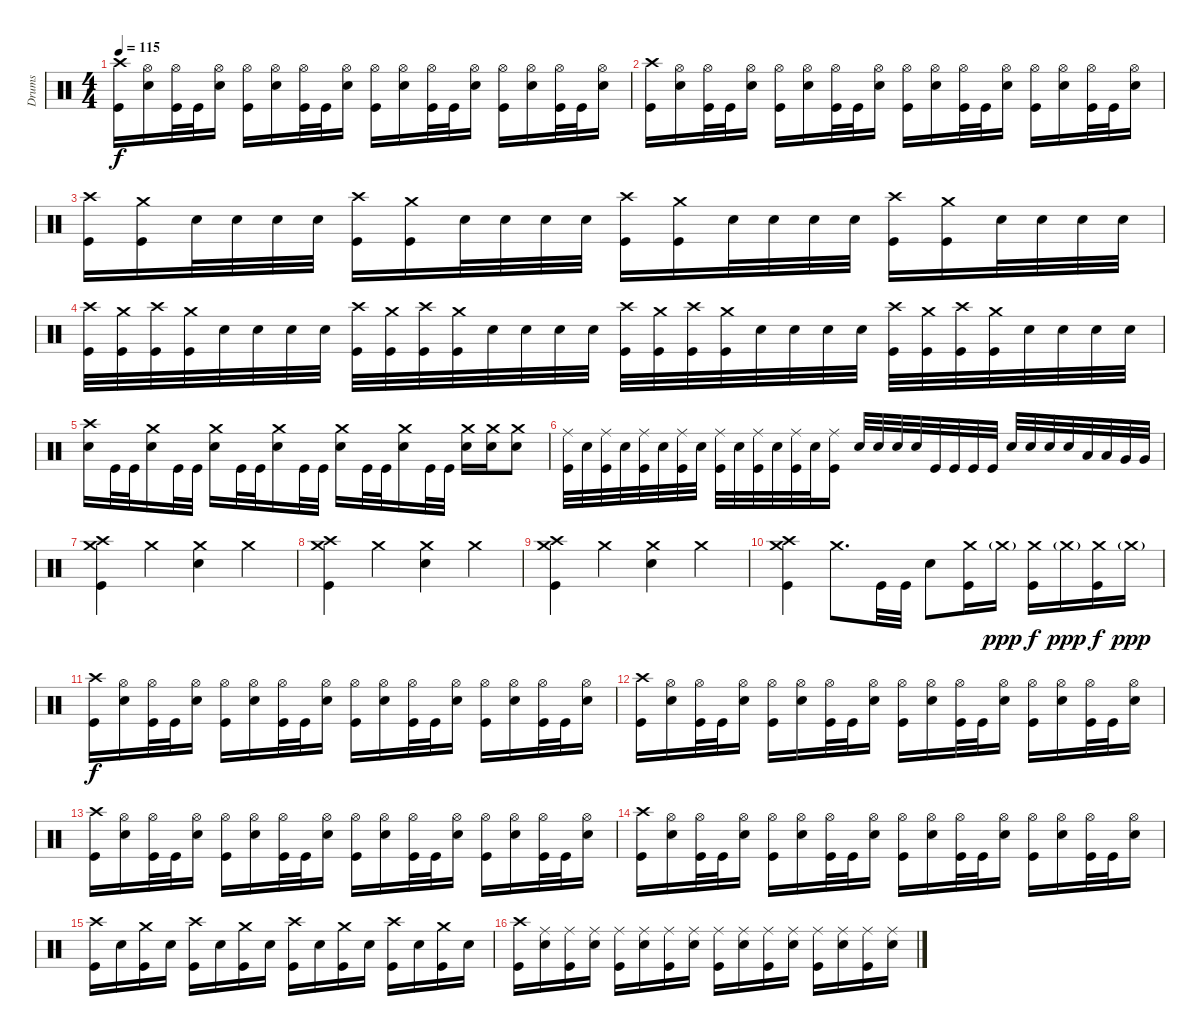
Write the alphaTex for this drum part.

\track ("Drums" "Drums") {instrument percussion}
\staff {score}
\articulation defaults
\ts (4 4)
\tempo 115
\clef neutral
\ks c
("Crash high (hit)" "Kick (hit)").16{dy f} ("Hi-Hat (open)" "Electric Snare (hit)").16 ("Hi-Hat (open)" "Kick (hit)").32 "Kick (hit)".32 ("Hi-Hat (open)" "Electric Snare (hit)").16 ("Hi-Hat (open)" "Kick (hit)").16 ("Hi-Hat (open)" "Electric Snare (hit)").16 ("Hi-Hat (open)" "Kick (hit)").32 "Kick (hit)".32 ("Hi-Hat (open)" "Electric Snare (hit)").16 ("Hi-Hat (open)" "Kick (hit)").16 ("Hi-Hat (open)" "Electric Snare (hit)").16 ("Hi-Hat (open)" "Kick (hit)").32 "Kick (hit)".32 ("Hi-Hat (open)" "Electric Snare (hit)").16 ("Hi-Hat (open)" "Kick (hit)").16 ("Hi-Hat (open)" "Electric Snare (hit)").16 ("Hi-Hat (open)" "Kick (hit)").32 "Kick (hit)".32 ("Hi-Hat (open)" "Electric Snare (hit)").16 |
("Crash high (hit)" "Kick (hit)").16 ("Hi-Hat (open)" "Electric Snare (hit)").16 ("Hi-Hat (open)" "Kick (hit)").32 "Kick (hit)".32 ("Hi-Hat (open)" "Electric Snare (hit)").16 ("Hi-Hat (open)" "Kick (hit)").16 ("Hi-Hat (open)" "Electric Snare (hit)").16 ("Hi-Hat (open)" "Kick (hit)").32 "Kick (hit)".32 ("Hi-Hat (open)" "Electric Snare (hit)").16 ("Hi-Hat (open)" "Kick (hit)").16 ("Hi-Hat (open)" "Electric Snare (hit)").16 ("Hi-Hat (open)" "Kick (hit)").32 "Kick (hit)".32 ("Hi-Hat (open)" "Electric Snare (hit)").16 ("Hi-Hat (open)" "Kick (hit)").16 ("Hi-Hat (open)" "Electric Snare (hit)").16 ("Hi-Hat (open)" "Kick (hit)").32 "Kick (hit)".32 ("Hi-Hat (open)" "Electric Snare (hit)").16 |
("Crash high (hit)" "Kick (hit)").16 ("Crash medium (hit)" "Kick (hit)").16 "Electric Snare (hit)".32 "Electric Snare (hit)".32 "Electric Snare (hit)".32 "Electric Snare (hit)".32 ("Crash high (hit)" "Kick (hit)").16 ("Crash medium (hit)" "Kick (hit)").16 "Electric Snare (hit)".32 "Electric Snare (hit)".32 "Electric Snare (hit)".32 "Electric Snare (hit)".32 ("Crash high (hit)" "Kick (hit)").16 ("Crash medium (hit)" "Kick (hit)").16 "Electric Snare (hit)".32 "Electric Snare (hit)".32 "Electric Snare (hit)".32 "Electric Snare (hit)".32 ("Crash high (hit)" "Kick (hit)").16 ("Crash medium (hit)" "Kick (hit)").16 "Electric Snare (hit)".32 "Electric Snare (hit)".32 "Electric Snare (hit)".32 "Electric Snare (hit)".32 |
("Crash high (hit)" "Kick (hit)").32 ("Crash medium (hit)" "Kick (hit)").32 ("Crash high (hit)" "Kick (hit)").32 ("Crash medium (hit)" "Kick (hit)").32 "Electric Snare (hit)".32 "Electric Snare (hit)".32 "Electric Snare (hit)".32 "Electric Snare (hit)".32 ("Crash high (hit)" "Kick (hit)").32 ("Crash medium (hit)" "Kick (hit)").32 ("Crash high (hit)" "Kick (hit)").32 ("Crash medium (hit)" "Kick (hit)").32 "Electric Snare (hit)".32 "Electric Snare (hit)".32 "Electric Snare (hit)".32 "Electric Snare (hit)".32 ("Crash high (hit)" "Kick (hit)").32 ("Crash medium (hit)" "Kick (hit)").32 ("Crash high (hit)" "Kick (hit)").32 ("Crash medium (hit)" "Kick (hit)").32 "Electric Snare (hit)".32 "Electric Snare (hit)".32 "Electric Snare (hit)".32 "Electric Snare (hit)".32 ("Crash high (hit)" "Kick (hit)").32 ("Crash medium (hit)" "Kick (hit)").32 ("Crash high (hit)" "Kick (hit)").32 ("Crash medium (hit)" "Kick (hit)").32 "Electric Snare (hit)".32 "Electric Snare (hit)".32 "Electric Snare (hit)".32 "Electric Snare (hit)".32 |
("Crash high (hit)" "Electric Snare (hit)").16 "Kick (hit)".32 "Kick (hit)".32 ("Crash medium (hit)" "Electric Snare (hit)").16 "Kick (hit)".32 "Kick (hit)".32 ("Crash medium (hit)" "Electric Snare (hit)").16 "Kick (hit)".32 "Kick (hit)".32 ("Crash medium (hit)" "Electric Snare (hit)").16 "Kick (hit)".32 "Kick (hit)".32 ("Crash medium (hit)" "Electric Snare (hit)").16 "Kick (hit)".32 "Kick (hit)".32 ("Crash medium (hit)" "Electric Snare (hit)").16 "Kick (hit)".32 "Kick (hit)".32 ("Crash medium (hit)" "Electric Snare (hit)").16 ("Crash medium (hit)" "Electric Snare (hit)").16 ("Crash medium (hit)" "Electric Snare (hit)").8 |
("Ride (middle)" "Kick (hit)").32 "Electric Snare (hit)".32 ("Ride (middle)" "Kick (hit)").32 "Electric Snare (hit)".32 ("Ride (middle)" "Kick (hit)").32 "Electric Snare (hit)".32 ("Ride (middle)" "Kick (hit)").32 "Electric Snare (hit)".32 ("Ride (middle)" "Kick (hit)").32 "Electric Snare (hit)".32 ("Ride (middle)" "Kick (hit)").32 "Electric Snare (hit)".32 ("Ride (middle)" "Kick (hit)").32 "Electric Snare (hit)".32 ("Ride (middle)" "Kick (hit)").16 "Electric Snare (hit)".32 "Electric Snare (hit)".32 "Electric Snare (hit)".32 "Electric Snare (hit)".32 "Kick (hit)".32 "Kick (hit)".32 "Kick (hit)".32 "Kick (hit)".32 "Electric Snare (hit)".32 "Electric Snare (hit)".32 "Electric Snare (hit)".32 "Electric Snare (hit)".32 "Low Tom (hit)".32 "Low Tom (hit)".32 "Very Low Tom (hit)".32 "Very Low Tom (hit)".32 |
("Crash high (hit)" "Crash medium (hit)" "Kick (hit)").4 "Crash medium (hit)".4 ("Crash medium (hit)" "Electric Snare (hit)").4 "Crash medium (hit)".4 |
("Crash high (hit)" "Crash medium (hit)" "Kick (hit)").4 "Crash medium (hit)".4 ("Crash medium (hit)" "Electric Snare (hit)").4 "Crash medium (hit)".4 |
("Crash high (hit)" "Crash medium (hit)" "Kick (hit)").4 "Crash medium (hit)".4 ("Crash medium (hit)" "Electric Snare (hit)").4 "Crash medium (hit)".4 |
("Crash high (hit)" "Crash medium (hit)" "Kick (hit)").4 "Crash medium (hit)".8{d} "Kick (hit)".32 "Kick (hit)".32 "Electric Snare (hit)".8 ("Crash medium (hit)" "Kick (hit)").16 "Crash medium (hit)"{g}.16{dy ppp} ("Crash medium (hit)" "Kick (hit)").16{dy f} "Crash medium (hit)"{g}.16{dy ppp} ("Crash medium (hit)" "Kick (hit)").16{dy f} "Crash medium (hit)"{g}.16{dy ppp} |
("Crash high (hit)" "Kick (hit)").16{dy f} ("Hi-Hat (open)" "Electric Snare (hit)").16 ("Hi-Hat (open)" "Kick (hit)").32 "Kick (hit)".32 ("Hi-Hat (open)" "Electric Snare (hit)").16 ("Hi-Hat (open)" "Kick (hit)").16 ("Hi-Hat (open)" "Electric Snare (hit)").16 ("Hi-Hat (open)" "Kick (hit)").32 "Kick (hit)".32 ("Hi-Hat (open)" "Electric Snare (hit)").16 ("Hi-Hat (open)" "Kick (hit)").16 ("Hi-Hat (open)" "Electric Snare (hit)").16 ("Hi-Hat (open)" "Kick (hit)").32 "Kick (hit)".32 ("Hi-Hat (open)" "Electric Snare (hit)").16 ("Hi-Hat (open)" "Kick (hit)").16 ("Hi-Hat (open)" "Electric Snare (hit)").16 ("Hi-Hat (open)" "Kick (hit)").32 "Kick (hit)".32 ("Hi-Hat (open)" "Electric Snare (hit)").16 |
("Crash high (hit)" "Kick (hit)").16 ("Hi-Hat (open)" "Electric Snare (hit)").16 ("Hi-Hat (open)" "Kick (hit)").32 "Kick (hit)".32 ("Hi-Hat (open)" "Electric Snare (hit)").16 ("Hi-Hat (open)" "Kick (hit)").16 ("Hi-Hat (open)" "Electric Snare (hit)").16 ("Hi-Hat (open)" "Kick (hit)").32 "Kick (hit)".32 ("Hi-Hat (open)" "Electric Snare (hit)").16 ("Hi-Hat (open)" "Kick (hit)").16 ("Hi-Hat (open)" "Electric Snare (hit)").16 ("Hi-Hat (open)" "Kick (hit)").32 "Kick (hit)".32 ("Hi-Hat (open)" "Electric Snare (hit)").16 ("Hi-Hat (open)" "Kick (hit)").16 ("Hi-Hat (open)" "Electric Snare (hit)").16 ("Hi-Hat (open)" "Kick (hit)").32 "Kick (hit)".32 ("Hi-Hat (open)" "Electric Snare (hit)").16 |
("Crash high (hit)" "Kick (hit)").16 ("Hi-Hat (open)" "Electric Snare (hit)").16 ("Hi-Hat (open)" "Kick (hit)").32 "Kick (hit)".32 ("Hi-Hat (open)" "Electric Snare (hit)").16 ("Hi-Hat (open)" "Kick (hit)").16 ("Hi-Hat (open)" "Electric Snare (hit)").16 ("Hi-Hat (open)" "Kick (hit)").32 "Kick (hit)".32 ("Hi-Hat (open)" "Electric Snare (hit)").16 ("Hi-Hat (open)" "Kick (hit)").16 ("Hi-Hat (open)" "Electric Snare (hit)").16 ("Hi-Hat (open)" "Kick (hit)").32 "Kick (hit)".32 ("Hi-Hat (open)" "Electric Snare (hit)").16 ("Hi-Hat (open)" "Kick (hit)").16 ("Hi-Hat (open)" "Electric Snare (hit)").16 ("Hi-Hat (open)" "Kick (hit)").32 "Kick (hit)".32 ("Hi-Hat (open)" "Electric Snare (hit)").16 |
("Crash high (hit)" "Kick (hit)").16 ("Hi-Hat (open)" "Electric Snare (hit)").16 ("Hi-Hat (open)" "Kick (hit)").32 "Kick (hit)".32 ("Hi-Hat (open)" "Electric Snare (hit)").16 ("Hi-Hat (open)" "Kick (hit)").16 ("Hi-Hat (open)" "Electric Snare (hit)").16 ("Hi-Hat (open)" "Kick (hit)").32 "Kick (hit)".32 ("Hi-Hat (open)" "Electric Snare (hit)").16 ("Hi-Hat (open)" "Kick (hit)").16 ("Hi-Hat (open)" "Electric Snare (hit)").16 ("Hi-Hat (open)" "Kick (hit)").32 "Kick (hit)".32 ("Hi-Hat (open)" "Electric Snare (hit)").16 ("Hi-Hat (open)" "Kick (hit)").16 ("Hi-Hat (open)" "Electric Snare (hit)").16 ("Hi-Hat (open)" "Kick (hit)").32 "Kick (hit)".32 ("Hi-Hat (open)" "Electric Snare (hit)").16 |
("Crash high (hit)" "Kick (hit)").16 "Electric Snare (hit)".16 ("Crash medium (hit)" "Kick (hit)").16 "Electric Snare (hit)".16 ("Crash high (hit)" "Kick (hit)").16 "Electric Snare (hit)".16 ("Crash medium (hit)" "Kick (hit)").16 "Electric Snare (hit)".16 ("Crash high (hit)" "Kick (hit)").16 "Electric Snare (hit)".16 ("Crash medium (hit)" "Kick (hit)").16 "Electric Snare (hit)".16 ("Crash high (hit)" "Kick (hit)").16 "Electric Snare (hit)".16 ("Crash medium (hit)" "Kick (hit)").16 "Electric Snare (hit)".16 |
("Crash high (hit)" "Kick (hit)").16 ("Ride (middle)" "Electric Snare (hit)").16 ("Ride (middle)" "Kick (hit)").16 ("Ride (middle)" "Electric Snare (hit)").16 ("Ride (middle)" "Kick (hit)").16 ("Ride (middle)" "Electric Snare (hit)").16 ("Ride (middle)" "Kick (hit)").16 ("Ride (middle)" "Electric Snare (hit)").16 ("Ride (middle)" "Kick (hit)").16 ("Ride (middle)" "Electric Snare (hit)").16 ("Ride (middle)" "Kick (hit)").16 ("Ride (middle)" "Electric Snare (hit)").16 ("Ride (middle)" "Kick (hit)").16 ("Ride (middle)" "Electric Snare (hit)").16 ("Ride (middle)" "Kick (hit)").16 ("Ride (middle)" "Electric Snare (hit)").16
